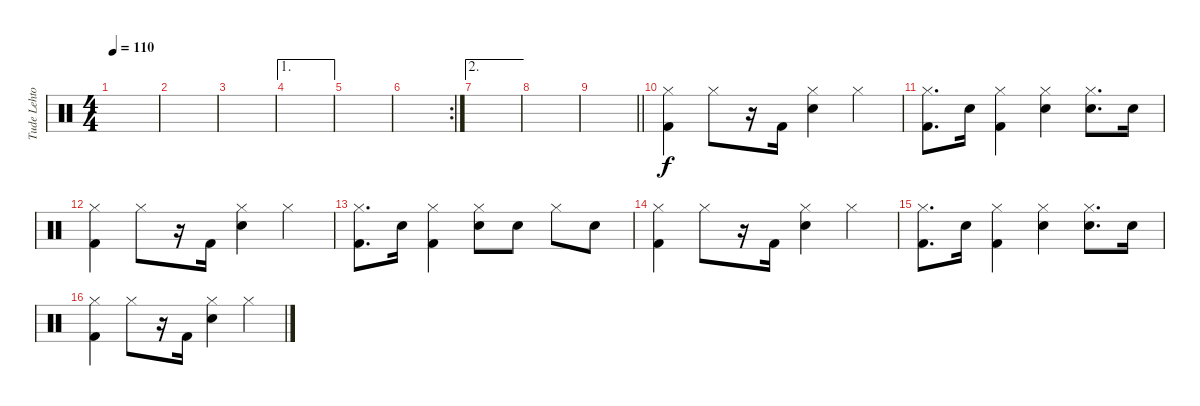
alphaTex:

\track ("Tude Lehtonen" "Tude Lehto") {instrument percussion}
\staff {score}
\articulation defaults
\ts (4 4)
\tempo 110
\clef neutral
\ks c
|
|
|
\ae 1
|
|
\rc 2
|
\ae 2
|
|
\barLineRight lightlight
|
\section ("" "")
("Hi-Hat (closed)" "Kick (hit) 2").4 "Hi-Hat (closed)".8 r.16 "Kick (hit) 2".16 ("Hi-Hat (closed)" "Snare (hit) 2").4 "Hi-Hat (closed)".4 |
("Hi-Hat (closed)" "Kick (hit) 2").8{d} "Snare (hit) 2".16 ("Hi-Hat (closed)" "Kick (hit) 2").4 ("Hi-Hat (closed)" "Snare (hit) 2").4 ("Hi-Hat (closed)" "Snare (hit) 2").8{d} "Snare (hit) 2".16 |
("Hi-Hat (closed)" "Kick (hit) 2").4 "Hi-Hat (closed)".8 r.16 "Kick (hit) 2".16 ("Hi-Hat (closed)" "Snare (hit) 2").4 "Hi-Hat (closed)".4 |
("Hi-Hat (closed)" "Kick (hit) 2").8{d} "Snare (hit) 2".16 ("Hi-Hat (closed)" "Kick (hit) 2").4 ("Hi-Hat (closed)" "Snare (hit) 2").8 "Snare (hit) 2".8 "Hi-Hat (closed)".8 "Snare (hit) 2".8 |
("Hi-Hat (closed)" "Kick (hit) 2").4 "Hi-Hat (closed)".8 r.16 "Kick (hit) 2".16 ("Hi-Hat (closed)" "Snare (hit) 2").4 "Hi-Hat (closed)".4 |
("Hi-Hat (closed)" "Kick (hit) 2").8{d} "Snare (hit) 2".16 ("Hi-Hat (closed)" "Kick (hit) 2").4 ("Hi-Hat (closed)" "Snare (hit) 2").4 ("Hi-Hat (closed)" "Snare (hit) 2").8{d} "Snare (hit) 2".16 |
("Hi-Hat (closed)" "Kick (hit) 2").4 "Hi-Hat (closed)".8 r.16 "Kick (hit) 2".16 ("Hi-Hat (closed)" "Snare (hit) 2").4 "Hi-Hat (closed)".4
